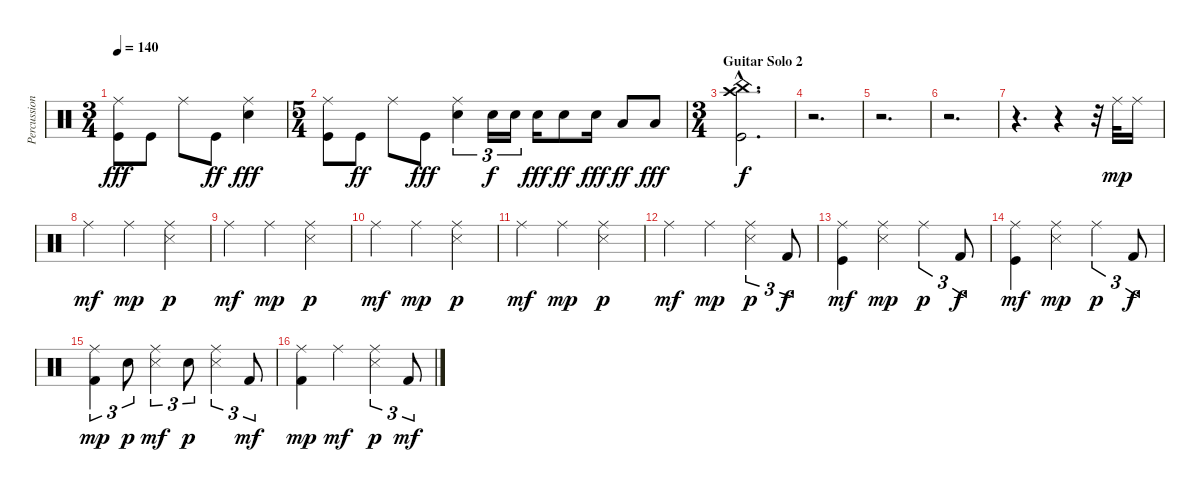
\track ("Percussion" "Percussion") {instrument percussion}
\staff {score}
\articulation defaults
\ts (3 4)
\tempo 140
\clef neutral
\ks c
("Ride (middle)" "Kick (hit)").8{dy fff} "Kick (hit)".8 "Ride (middle)".8 "Kick (hit)".8{dy ff} ("Electric Snare (hit)" "Ride (middle)").4{dy fff} |
\ts (5 4)
("Ride (middle)" "Kick (hit)").8 "Kick (hit)".8{dy ff} "Ride (middle)".8 "Kick (hit)".8{dy fff} ("Electric Snare (hit)" "Ride (middle)").4{tu (3 2)} "Electric Snare (hit)".16{tu (3 2) dy f} "Electric Snare (hit)".16{tu (3 2)} "Electric Snare (hit)".16{dy fff} "Electric Snare (hit)".8{dy ff} "Electric Snare (hit)".16{dy fff} "Low Tom (hit)".8{dy ff} "Low Tom (hit)".8{dy fff} |
\ts (3 4)
\section ("" "Guitar Solo 2")
("Crash high (hit)"{hac} "China (hit)"{hac} "Kick (hit)"{hac}).2{d dy f} |
r.2{d} |
r.2{d} |
r.2{d} |
r.4{d} r.4 r.32 "Ride (middle)".32{dy mp} "Ride (middle)".16 |
"Ride (middle)".4{dy mf} "Ride (middle)".4{dy mp} ("Ride (middle)" "Snare (side stick) 3").4{dy p} |
"Ride (middle)".4{dy mf} "Ride (middle)".4{dy mp} ("Ride (middle)" "Snare (side stick) 3").4{dy p} |
"Ride (middle)".4{dy mf} "Ride (middle)".4{dy mp} ("Ride (middle)" "Snare (side stick) 3").4{dy p} |
"Ride (middle)".4{dy mf} "Ride (middle)".4{dy mp} ("Ride (middle)" "Snare (side stick) 3").4{dy p} |
"Ride (middle)".4{dy mf} "Ride (middle)".4{dy mp} ("Ride (middle)" "Snare (side stick) 3").4{tu (3 2) dy p} "Kick (hit) 2".8{tu (3 2) dy f} |
("Ride (middle)" "Kick (hit)").4{dy mf} ("Ride (middle)" "Snare (side stick) 3").4{dy mp} "Ride (middle)".4{tu (3 2) dy p} "Kick (hit) 2".8{tu (3 2) dy f} |
("Ride (middle)" "Kick (hit)").4{dy mf} ("Ride (middle)" "Snare (side stick) 3").4{dy mp} "Ride (middle)".4{tu (3 2) dy p} "Kick (hit) 2".8{tu (3 2) dy f} |
("Kick (hit) 2" "Ride (middle)").4{tu (3 2) dy mp} "Electric Snare (hit)".8{tu (3 2) dy p} ("Ride (middle)" "Snare (side stick) 3").4{tu (3 2) dy mf} "Electric Snare (hit)".8{tu (3 2) dy p} ("Snare (side stick) 3" "Ride (middle)").4{tu (3 2)} "Kick (hit) 2".8{tu (3 2) dy mf} |
("Ride (middle)" "Kick (hit) 2").4{dy mp} "Ride (middle)".4{dy mf} ("Snare (side stick) 3" "Ride (middle)").4{tu (3 2) dy p} "Kick (hit) 2".8{tu (3 2) dy mf}
